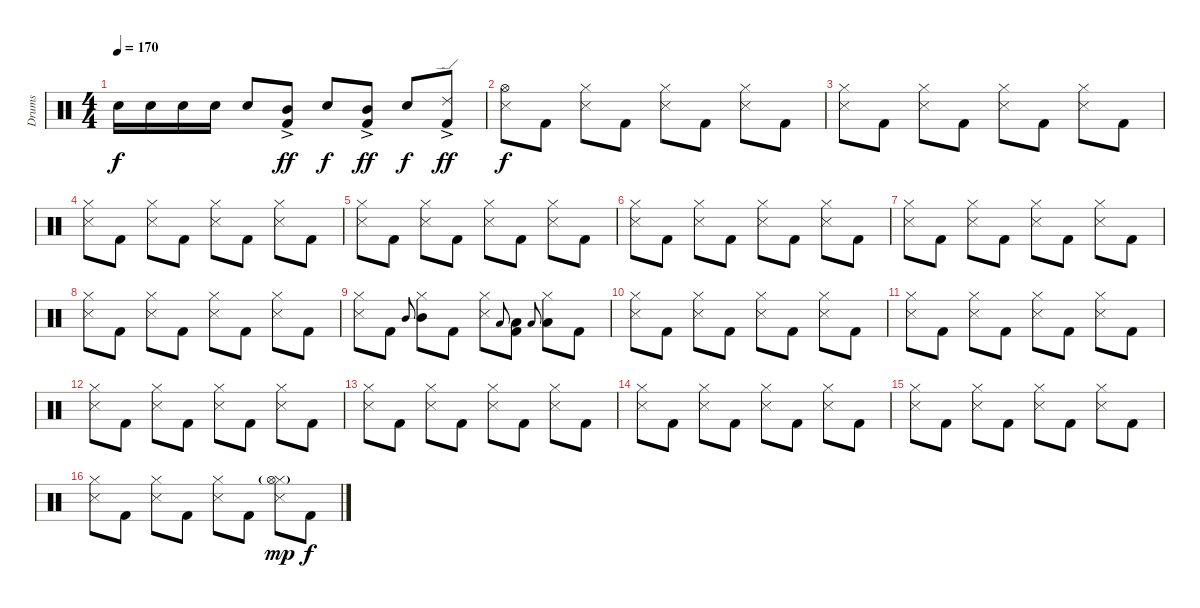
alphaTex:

\track ("Drums" "Drums") {instrument percussion}
\staff {score}
\articulation defaults
\ts (4 4)
\tempo 170
\clef neutral
\ks c "Electric Snare (hit)".16{dy f} "Electric Snare (hit)".16 "Electric Snare (hit)".16 "Electric Snare (hit)".16 "Electric Snare (hit)".8
("Mid Tom (hit)" "Kick (hit) 2"{ac}).8{dy ff} "Electric Snare (hit)".8{dy f} ("Mid Tom (hit)" "Kick (hit) 2"{ac}).8{dy ff} "Electric Snare (hit)".8{dy f} ("Ride (edge) 2"{ac} "Kick (hit) 2"{ac}).8{dy ff} |
("Snare (side stick) 3" "Hi-Hat (open)").8{dy f} "Kick (hit) 2".8 ("Snare (side stick) 3" "Hi-Hat (closed)").8 "Kick (hit) 2".8 ("Snare (side stick) 3" "Hi-Hat (closed)").8 "Kick (hit) 2".8 ("Snare (side stick) 3" "Hi-Hat (closed)").8 "Kick (hit) 2".8 |
("Snare (side stick) 3" "Hi-Hat (closed)").8 "Kick (hit) 2".8 ("Snare (side stick) 3" "Hi-Hat (closed)").8 "Kick (hit) 2".8 ("Snare (side stick) 3" "Hi-Hat (closed)").8 "Kick (hit) 2".8 ("Snare (side stick) 3" "Hi-Hat (closed)").8 "Kick (hit) 2".8 |
("Snare (side stick) 3" "Hi-Hat (closed)").8 "Kick (hit) 2".8 ("Snare (side stick) 3" "Hi-Hat (closed)").8 "Kick (hit) 2".8 ("Snare (side stick) 3" "Hi-Hat (closed)").8 "Kick (hit) 2".8 ("Snare (side stick) 3" "Hi-Hat (closed)").8 "Kick (hit) 2".8 |
("Snare (side stick) 3" "Hi-Hat (closed)").8 "Kick (hit) 2".8 ("Snare (side stick) 3" "Hi-Hat (closed)").8 "Kick (hit) 2".8 ("Snare (side stick) 3" "Hi-Hat (closed)").8 "Kick (hit) 2".8 ("Snare (side stick) 3" "Hi-Hat (closed)").8 "Kick (hit) 2".8 |
("Snare (side stick) 3" "Hi-Hat (closed)").8 "Kick (hit) 2".8 ("Snare (side stick) 3" "Hi-Hat (closed)").8 "Kick (hit) 2".8 ("Snare (side stick) 3" "Hi-Hat (closed)").8 "Kick (hit) 2".8 ("Snare (side stick) 3" "Hi-Hat (closed)").8 "Kick (hit) 2".8 |
("Snare (side stick) 3" "Hi-Hat (closed)").8 "Kick (hit) 2".8 ("Snare (side stick) 3" "Hi-Hat (closed)").8 "Kick (hit) 2".8 ("Snare (side stick) 3" "Hi-Hat (closed)").8 "Kick (hit) 2".8 ("Snare (side stick) 3" "Hi-Hat (closed)").8 "Kick (hit) 2".8 |
("Snare (side stick) 3" "Hi-Hat (closed)").8 "Kick (hit) 2".8 ("Snare (side stick) 3" "Hi-Hat (closed)").8 "Kick (hit) 2".8 ("Snare (side stick) 3" "Hi-Hat (closed)").8 "Kick (hit) 2".8 ("Snare (side stick) 3" "Hi-Hat (closed)").8 "Kick (hit) 2".8 |
("Snare (side stick) 3" "Hi-Hat (closed)").8 "Kick (hit) 2".8 "Mid Tom (hit)".8{gr onbeat} ("Mid Tom (hit)" "Hi-Hat (closed)").8 "Kick (hit) 2".8 ("Snare (side stick) 3" "Hi-Hat (closed)").8 "Low Tom (hit)".8{gr onbeat} ("Low Tom (hit)" "Kick (hit) 2").8 "Low Tom (hit)".8{gr onbeat} ("Low Tom (hit)" "Hi-Hat (closed)").8 "Kick (hit) 2".8 |
("Snare (side stick) 3" "Hi-Hat (closed)").8 "Kick (hit) 2".8 ("Snare (side stick) 3" "Hi-Hat (closed)").8 "Kick (hit) 2".8 ("Snare (side stick) 3" "Hi-Hat (closed)").8 "Kick (hit) 2".8 ("Snare (side stick) 3" "Hi-Hat (closed)").8 "Kick (hit) 2".8 |
("Snare (side stick) 3" "Hi-Hat (closed)").8 "Kick (hit) 2".8 ("Snare (side stick) 3" "Hi-Hat (closed)").8 "Kick (hit) 2".8 ("Snare (side stick) 3" "Hi-Hat (closed)").8 "Kick (hit) 2".8 ("Snare (side stick) 3" "Hi-Hat (closed)").8 "Kick (hit) 2".8 |
("Snare (side stick) 3" "Hi-Hat (closed)").8 "Kick (hit) 2".8 ("Snare (side stick) 3" "Hi-Hat (closed)").8 "Kick (hit) 2".8 ("Snare (side stick) 3" "Hi-Hat (closed)").8 "Kick (hit) 2".8 ("Snare (side stick) 3" "Hi-Hat (closed)").8 "Kick (hit) 2".8 |
("Snare (side stick) 3" "Hi-Hat (closed)").8 "Kick (hit) 2".8 ("Snare (side stick) 3" "Hi-Hat (closed)").8 "Kick (hit) 2".8 ("Snare (side stick) 3" "Hi-Hat (closed)").8 "Kick (hit) 2".8 ("Snare (side stick) 3" "Hi-Hat (closed)").8 "Kick (hit) 2".8 |
("Snare (side stick) 3" "Hi-Hat (closed)").8 "Kick (hit) 2".8 ("Snare (side stick) 3" "Hi-Hat (closed)").8 "Kick (hit) 2".8 ("Snare (side stick) 3" "Hi-Hat (closed)").8 "Kick (hit) 2".8 ("Snare (side stick) 3" "Hi-Hat (closed)").8 "Kick (hit) 2".8 |
("Snare (side stick) 3" "Hi-Hat (closed)").8 "Kick (hit) 2".8 ("Snare (side stick) 3" "Hi-Hat (closed)").8 "Kick (hit) 2".8 ("Snare (side stick) 3" "Hi-Hat (closed)").8 "Kick (hit) 2".8 ("Snare (side stick) 3" "Hi-Hat (closed)").8 "Kick (hit) 2".8 |
("Snare (side stick) 3" "Hi-Hat (closed)").8 "Kick (hit) 2".8 ("Snare (side stick) 3" "Hi-Hat (closed)").8 "Kick (hit) 2".8 ("Snare (side stick) 3" "Hi-Hat (closed)").8 "Kick (hit) 2".8 ("Snare (side stick) 3" "Hi-Hat (closed)" "Hi-Hat (open)"{g}).8{dy mp} "Kick (hit) 2".8{dy f}
